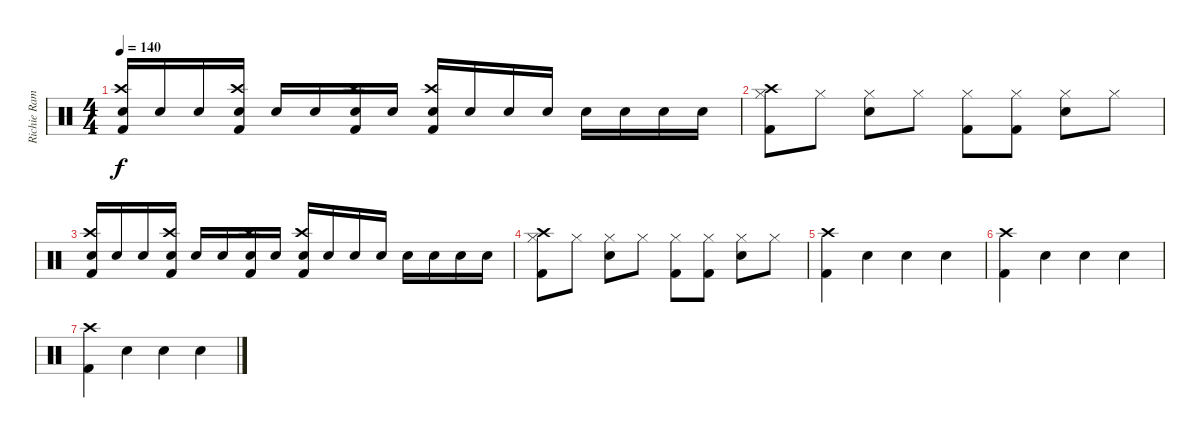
\track ("Richie Ramone - Drums" "Richie Ram") {instrument percussion}
\staff {score}
\articulation defaults
\ts (4 4)
\tempo 140
\clef neutral
\ks c
("Electric Snare (hit)" "Crash high (hit)" "Kick (hit) 2").16{dy f} "Snare (hit)"{x}.16 "Electric Snare (hit)"{x}.16 ("Electric Snare (hit)" "Crash high (hit)" "Kick (hit) 2").16 "Snare (hit)"{x}.16 "Electric Snare (hit)"{x}.16 ("Electric Snare (hit)" "Crash high (hit)" "Kick (hit) 2").16 "Snare (hit)"{x}.16 ("Electric Snare (hit)" "Crash high (hit)" "Kick (hit) 2").16 "Electric Snare (hit)"{x}.16 "Electric Snare (hit)".16 "Electric Snare (hit)".16 "Electric Snare (hit)".16 "Electric Snare (hit)".16 "Electric Snare (hit)".16 "Electric Snare (hit)".16 |
("Hi-Hat (closed)" "Kick (hit) 2" "Crash high (hit)").8 "Hi-Hat (closed)".8 ("Hi-Hat (closed)" "Electric Snare (hit)").8 "Hi-Hat (closed)".8 ("Hi-Hat (closed)" "Kick (hit) 2").8 ("Hi-Hat (closed)" "Kick (hit) 2").8 ("Hi-Hat (closed)" "Electric Snare (hit)").8 "Hi-Hat (closed)".8 |
("Electric Snare (hit)" "Crash high (hit)" "Kick (hit) 2").16 "Snare (hit)"{x}.16 "Electric Snare (hit)"{x}.16 ("Electric Snare (hit)" "Crash high (hit)" "Kick (hit) 2").16 "Snare (hit)"{x}.16 "Electric Snare (hit)"{x}.16 ("Electric Snare (hit)" "Crash high (hit)" "Kick (hit) 2").16 "Snare (hit)"{x}.16 ("Electric Snare (hit)" "Crash high (hit)" "Kick (hit) 2").16 "Electric Snare (hit)"{x}.16 "Electric Snare (hit)".16 "Electric Snare (hit)".16 "Electric Snare (hit)".16 "Electric Snare (hit)".16 "Electric Snare (hit)".16 "Electric Snare (hit)".16 |
("Hi-Hat (closed)" "Kick (hit) 2" "Crash high (hit)").8 "Hi-Hat (closed)".8 ("Hi-Hat (closed)" "Electric Snare (hit)").8 "Hi-Hat (closed)".8 ("Hi-Hat (closed)" "Kick (hit) 2").8 ("Hi-Hat (closed)" "Kick (hit) 2").8 ("Hi-Hat (closed)" "Electric Snare (hit)").8 "Hi-Hat (closed)".8 |
("Crash high (hit)" "Kick (hit) 2").4 "Snare (hit)"{x}.4 "Snare (hit)"{x}.4 "Snare (hit)"{x}.4 |
("Crash high (hit)" "Kick (hit) 2").4 "Snare (hit)"{x}.4 "Snare (hit)"{x}.4 "Snare (hit)"{x}.4 |
("Crash high (hit)" "Kick (hit) 2").4 "Snare (hit)"{x}.4 "Snare (hit)"{x}.4 "Snare (hit)"{x}.4
